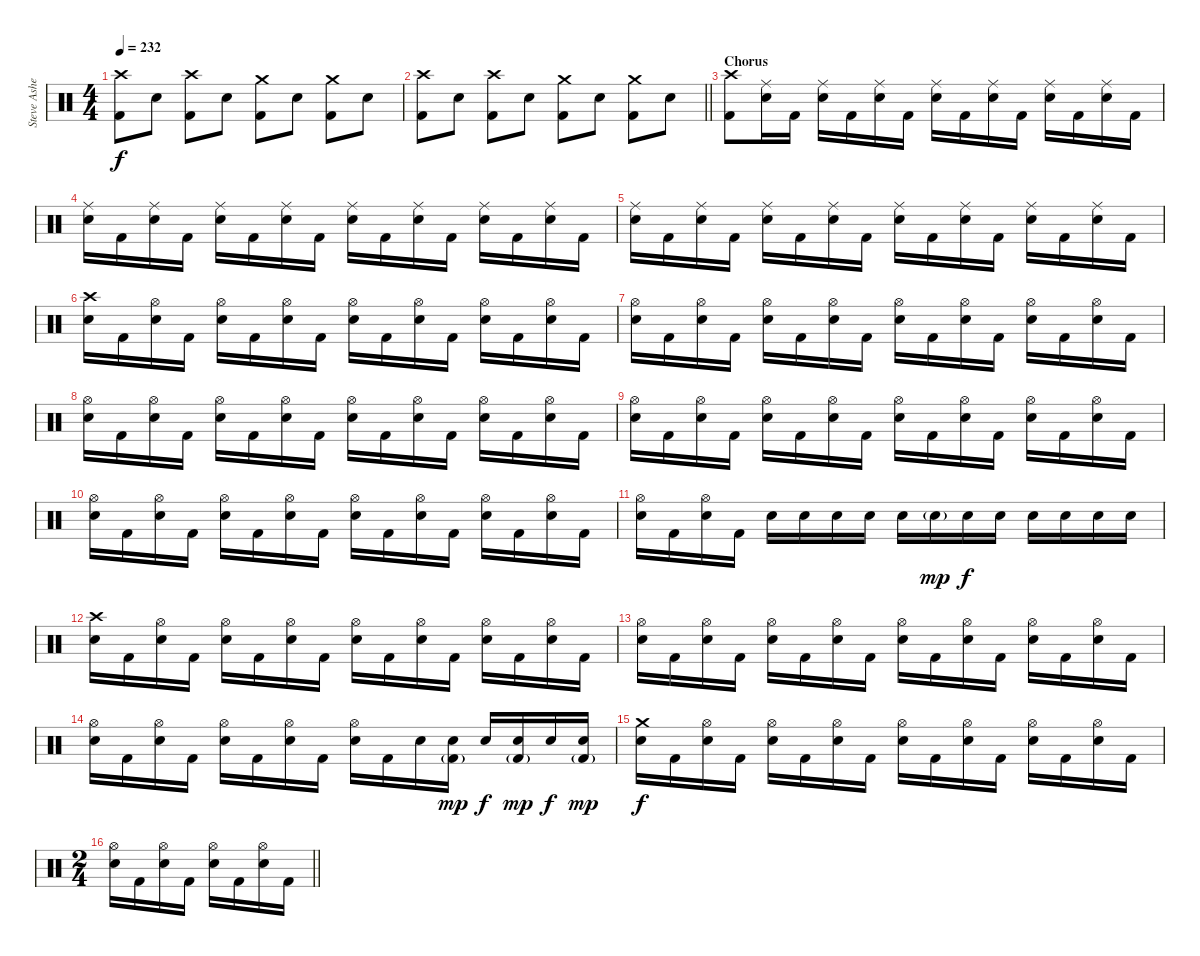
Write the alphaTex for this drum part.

\track ("Steve Asheim" "Steve Ashe") {instrument percussion}
\staff {score}
\articulation defaults
\ts (4 4)
\tempo 232
\clef neutral
\ks c
("Crash high (hit)" "Kick (hit) 2").8{dy f} "Electric Snare (hit)".8 ("Crash high (hit)" "Kick (hit) 2").8 "Electric Snare (hit)".8 ("Crash medium (hit)" "Kick (hit) 2").8 "Electric Snare (hit)".8 ("Crash medium (hit)" "Kick (hit) 2").8 "Electric Snare (hit)".8 |
\barLineRight lightlight
("Crash high (hit)" "Kick (hit) 2").8 "Electric Snare (hit)".8 ("Crash high (hit)" "Kick (hit) 2").8 "Electric Snare (hit)".8 ("Crash medium (hit)" "Kick (hit) 2").8 "Electric Snare (hit)".8 ("Crash medium (hit)" "Kick (hit) 2").8 "Electric Snare (hit)".8 |
\section ("" "Chorus")
("Crash high (hit)" "Kick (hit) 2").8 ("Ride (middle)" "Electric Snare (hit)").16 "Kick (hit) 2".16 ("Ride (middle)" "Electric Snare (hit)").16 "Kick (hit) 2".16 ("Ride (middle)" "Electric Snare (hit)").16 "Kick (hit) 2".16 ("Ride (middle)" "Electric Snare (hit)").16 "Kick (hit) 2".16 ("Ride (middle)" "Electric Snare (hit)").16 "Kick (hit) 2".16 ("Ride (middle)" "Electric Snare (hit)").16 "Kick (hit) 2".16 ("Ride (middle)" "Electric Snare (hit)").16 "Kick (hit) 2".16 |
("Ride (middle)" "Electric Snare (hit)").16 "Kick (hit) 2".16 ("Ride (middle)" "Electric Snare (hit)").16 "Kick (hit) 2".16 ("Ride (middle)" "Electric Snare (hit)").16 "Kick (hit) 2".16 ("Ride (middle)" "Electric Snare (hit)").16 "Kick (hit) 2".16 ("Ride (middle)" "Electric Snare (hit)").16 "Kick (hit) 2".16 ("Ride (middle)" "Electric Snare (hit)").16 "Kick (hit) 2".16 ("Ride (middle)" "Electric Snare (hit)").16 "Kick (hit) 2".16 ("Ride (middle)" "Electric Snare (hit)").16 "Kick (hit) 2".16 |
("Ride (middle)" "Electric Snare (hit)").16 "Kick (hit) 2".16 ("Ride (middle)" "Electric Snare (hit)").16 "Kick (hit) 2".16 ("Ride (middle)" "Electric Snare (hit)").16 "Kick (hit) 2".16 ("Ride (middle)" "Electric Snare (hit)").16 "Kick (hit) 2".16 ("Ride (middle)" "Electric Snare (hit)").16 "Kick (hit) 2".16 ("Ride (middle)" "Electric Snare (hit)").16 "Kick (hit) 2".16 ("Ride (middle)" "Electric Snare (hit)").16 "Kick (hit) 2".16 ("Ride (middle)" "Electric Snare (hit)").16 "Kick (hit) 2".16 |
("Crash high (hit)" "Electric Snare (hit)").16 "Kick (hit) 2".16 ("Hi-Hat (open)" "Electric Snare (hit)").16 "Kick (hit) 2".16 ("Hi-Hat (open)" "Electric Snare (hit)").16 "Kick (hit) 2".16 ("Hi-Hat (open)" "Electric Snare (hit)").16 "Kick (hit) 2".16 ("Hi-Hat (open)" "Electric Snare (hit)").16 "Kick (hit) 2".16 ("Hi-Hat (open)" "Electric Snare (hit)").16 "Kick (hit) 2".16 ("Hi-Hat (open)" "Electric Snare (hit)").16 "Kick (hit) 2".16 ("Hi-Hat (open)" "Electric Snare (hit)").16 "Kick (hit) 2".16 |
("Hi-Hat (open)" "Electric Snare (hit)").16 "Kick (hit) 2".16 ("Hi-Hat (open)" "Electric Snare (hit)").16 "Kick (hit) 2".16 ("Hi-Hat (open)" "Electric Snare (hit)").16 "Kick (hit) 2".16 ("Hi-Hat (open)" "Electric Snare (hit)").16 "Kick (hit) 2".16 ("Hi-Hat (open)" "Electric Snare (hit)").16 "Kick (hit) 2".16 ("Hi-Hat (open)" "Electric Snare (hit)").16 "Kick (hit) 2".16 ("Hi-Hat (open)" "Electric Snare (hit)").16 "Kick (hit) 2".16 ("Hi-Hat (open)" "Electric Snare (hit)").16 "Kick (hit) 2".16 |
("Hi-Hat (open)" "Electric Snare (hit)").16 "Kick (hit) 2".16 ("Hi-Hat (open)" "Electric Snare (hit)").16 "Kick (hit) 2".16 ("Hi-Hat (open)" "Electric Snare (hit)").16 "Kick (hit) 2".16 ("Hi-Hat (open)" "Electric Snare (hit)").16 "Kick (hit) 2".16 ("Hi-Hat (open)" "Electric Snare (hit)").16 "Kick (hit) 2".16 ("Hi-Hat (open)" "Electric Snare (hit)").16 "Kick (hit) 2".16 ("Hi-Hat (open)" "Electric Snare (hit)").16 "Kick (hit) 2".16 ("Hi-Hat (open)" "Electric Snare (hit)").16 "Kick (hit) 2".16 |
("Hi-Hat (open)" "Electric Snare (hit)").16 "Kick (hit) 2".16 ("Hi-Hat (open)" "Electric Snare (hit)").16 "Kick (hit) 2".16 ("Hi-Hat (open)" "Electric Snare (hit)").16 "Kick (hit) 2".16 ("Hi-Hat (open)" "Electric Snare (hit)").16 "Kick (hit) 2".16 ("Hi-Hat (open)" "Electric Snare (hit)").16 "Kick (hit) 2".16 ("Hi-Hat (open)" "Electric Snare (hit)").16 "Kick (hit) 2".16 ("Hi-Hat (open)" "Electric Snare (hit)").16 "Kick (hit) 2".16 ("Hi-Hat (open)" "Electric Snare (hit)").16 "Kick (hit) 2".16 |
("Hi-Hat (open)" "Electric Snare (hit)").16 "Kick (hit) 2".16 ("Hi-Hat (open)" "Electric Snare (hit)").16 "Kick (hit) 2".16 ("Hi-Hat (open)" "Electric Snare (hit)").16 "Kick (hit) 2".16 ("Hi-Hat (open)" "Electric Snare (hit)").16 "Kick (hit) 2".16 ("Hi-Hat (open)" "Electric Snare (hit)").16 "Kick (hit) 2".16 ("Hi-Hat (open)" "Electric Snare (hit)").16 "Kick (hit) 2".16 ("Hi-Hat (open)" "Electric Snare (hit)").16 "Kick (hit) 2".16 ("Hi-Hat (open)" "Electric Snare (hit)").16 "Kick (hit) 2".16 |
("Hi-Hat (open)" "Electric Snare (hit)").16 "Kick (hit) 2".16 ("Hi-Hat (open)" "Electric Snare (hit)").16 "Kick (hit) 2".16 "Electric Snare (hit)".16 "Electric Snare (hit)".16 "Electric Snare (hit)".16 "Electric Snare (hit)".16 "Electric Snare (hit)".16 "Electric Snare (hit)"{g}.16{dy mp} "Electric Snare (hit)".16{dy f} "Electric Snare (hit)".16 "Electric Snare (hit)".16 "Electric Snare (hit)".16 "Electric Snare (hit)".16 "Electric Snare (hit)".16 |
("Crash high (hit)" "Electric Snare (hit)").16 "Kick (hit) 2".16 ("Hi-Hat (open)" "Electric Snare (hit)").16 "Kick (hit) 2".16 ("Hi-Hat (open)" "Electric Snare (hit)").16 "Kick (hit) 2".16 ("Hi-Hat (open)" "Electric Snare (hit)").16 "Kick (hit) 2".16 ("Hi-Hat (open)" "Electric Snare (hit)").16 "Kick (hit) 2".16 ("Hi-Hat (open)" "Electric Snare (hit)").16 "Kick (hit) 2".16 ("Hi-Hat (open)" "Electric Snare (hit)").16 "Kick (hit) 2".16 ("Hi-Hat (open)" "Electric Snare (hit)").16 "Kick (hit) 2".16 |
("Hi-Hat (open)" "Electric Snare (hit)").16 "Kick (hit) 2".16 ("Hi-Hat (open)" "Electric Snare (hit)").16 "Kick (hit) 2".16 ("Hi-Hat (open)" "Electric Snare (hit)").16 "Kick (hit) 2".16 ("Hi-Hat (open)" "Electric Snare (hit)").16 "Kick (hit) 2".16 ("Hi-Hat (open)" "Electric Snare (hit)").16 "Kick (hit) 2".16 ("Hi-Hat (open)" "Electric Snare (hit)").16 "Kick (hit) 2".16 ("Hi-Hat (open)" "Electric Snare (hit)").16 "Kick (hit) 2".16 ("Hi-Hat (open)" "Electric Snare (hit)").16 "Kick (hit) 2".16 |
("Hi-Hat (open)" "Electric Snare (hit)").16 "Kick (hit) 2".16 ("Hi-Hat (open)" "Electric Snare (hit)").16 "Kick (hit) 2".16 ("Hi-Hat (open)" "Electric Snare (hit)").16 "Kick (hit) 2".16 ("Hi-Hat (open)" "Electric Snare (hit)").16 "Kick (hit) 2".16 ("Hi-Hat (open)" "Electric Snare (hit)").16 "Kick (hit) 2".16 "Electric Snare (hit)".16 ("Electric Snare (hit)" "Kick (hit) 2"{g}).16{dy mp} "Electric Snare (hit)".16{dy f} ("Electric Snare (hit)" "Kick (hit) 2"{g}).16{dy mp} "Electric Snare (hit)".16{dy f} ("Electric Snare (hit)" "Kick (hit) 2"{g}).16{dy mp} |
("Crash medium (hit)" "Electric Snare (hit)").16{dy f} "Kick (hit) 2".16 ("Hi-Hat (open)" "Electric Snare (hit)").16 "Kick (hit) 2".16 ("Hi-Hat (open)" "Electric Snare (hit)").16 "Kick (hit) 2".16 ("Hi-Hat (open)" "Electric Snare (hit)").16 "Kick (hit) 2".16 ("Hi-Hat (open)" "Electric Snare (hit)").16 "Kick (hit) 2".16 ("Hi-Hat (open)" "Electric Snare (hit)").16 "Kick (hit) 2".16 ("Hi-Hat (open)" "Electric Snare (hit)").16 "Kick (hit) 2".16 ("Hi-Hat (open)" "Electric Snare (hit)").16 "Kick (hit) 2".16 |
\ts (2 4)
\barLineRight lightlight
("Hi-Hat (open)" "Electric Snare (hit)").16 "Kick (hit) 2".16 ("Hi-Hat (open)" "Electric Snare (hit)").16 "Kick (hit) 2".16 ("Hi-Hat (open)" "Electric Snare (hit)").16 "Kick (hit) 2".16 ("Hi-Hat (open)" "Electric Snare (hit)").16 "Kick (hit) 2".16
